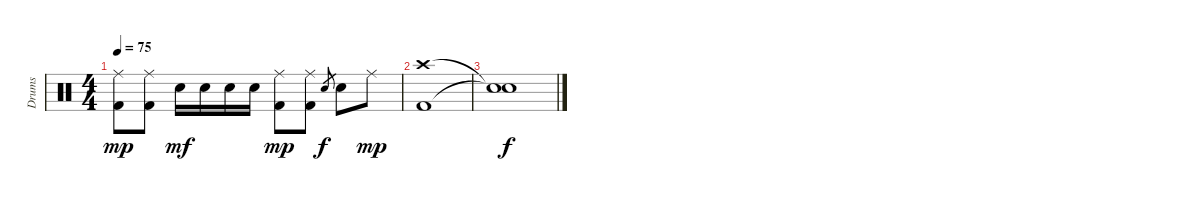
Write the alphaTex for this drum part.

\track ("Drums" "Drums") {instrument percussion}
\staff {score}
\articulation defaults
\ts (4 4)
\tempo 75
\clef neutral
\ks c
("Ride (middle)" "Kick (hit) 2").8{dy mp} ("Ride (middle)" "Kick (hit) 2").8 "Electric Snare (hit)".16{dy mf} "Electric Snare (hit)".16 "Electric Snare (hit)".16 "Electric Snare (hit)".16 ("Ride (middle)" "Kick (hit) 2").8{dy mp} ("Ride (middle)" "Kick (hit) 2").8 "Electric Snare (hit)".8{gr dy f} "Electric Snare (hit)".8 "Ride (middle)".8{dy mp} |
("Crash high (hit)" "Kick (hit) 2").1 |
("Snare (hit)"{t} "Snare (hit)"{t}).1{dy f}
